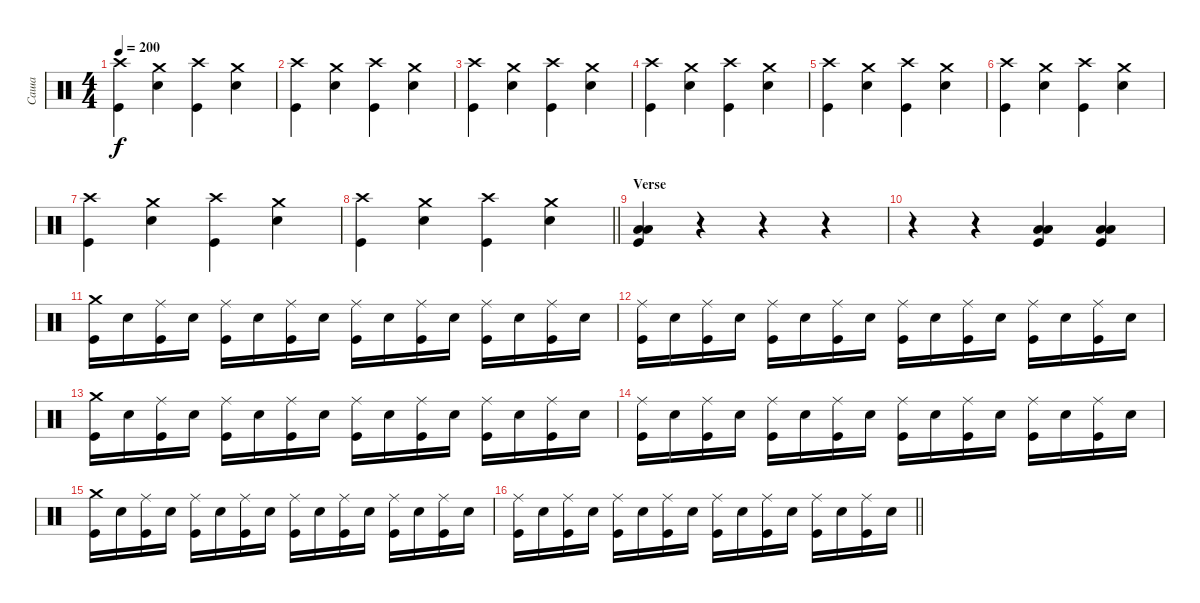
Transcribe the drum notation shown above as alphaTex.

\track ("Саша" "Саша") {instrument percussion}
\staff {score}
\articulation defaults
\ts (4 4)
\tempo 200
\clef neutral
\ks c
("Crash high (hit)" "Kick (hit)").4{dy f} ("Crash medium (hit)" "Electric Snare (hit)").4 ("Crash high (hit)" "Kick (hit)").4 ("Crash medium (hit)" "Electric Snare (hit)").4 |
("Crash high (hit)" "Kick (hit)").4 ("Crash medium (hit)" "Electric Snare (hit)").4 ("Crash high (hit)" "Kick (hit)").4 ("Crash medium (hit)" "Electric Snare (hit)").4 |
("Crash high (hit)" "Kick (hit)").4 ("Crash medium (hit)" "Electric Snare (hit)").4 ("Crash high (hit)" "Kick (hit)").4 ("Crash medium (hit)" "Electric Snare (hit)").4 |
("Crash high (hit)" "Kick (hit)").4 ("Crash medium (hit)" "Electric Snare (hit)").4 ("Crash high (hit)" "Kick (hit)").4 ("Crash medium (hit)" "Electric Snare (hit)").4 |
("Crash high (hit)" "Kick (hit)").4 ("Crash medium (hit)" "Electric Snare (hit)").4 ("Crash high (hit)" "Kick (hit)").4 ("Crash medium (hit)" "Electric Snare (hit)").4 |
("Crash high (hit)" "Kick (hit)").4 ("Crash medium (hit)" "Electric Snare (hit)").4 ("Crash high (hit)" "Kick (hit)").4 ("Crash medium (hit)" "Electric Snare (hit)").4 |
("Crash high (hit)" "Kick (hit)").4 ("Crash medium (hit)" "Electric Snare (hit)").4 ("Crash high (hit)" "Kick (hit)").4 ("Crash medium (hit)" "Electric Snare (hit)").4 |
\barLineRight lightlight
("Crash high (hit)" "Kick (hit)").4 ("Crash medium (hit)" "Electric Snare (hit)").4 ("Crash high (hit)" "Kick (hit)").4 ("Crash medium (hit)" "Electric Snare (hit)").4 |
\section ("" "Verse")
("Low Tom (hit)" "Low Floor Tom (hit)" "Kick (hit)").4 r.4 r.4 r.4 |
r.4 r.4 ("Low Tom (hit)" "Low Floor Tom (hit)" "Kick (hit)").4 ("Low Tom (hit)" "Low Floor Tom (hit)" "Kick (hit)").4 |
("Crash medium (hit)" "Kick (hit)").16 "Electric Snare (hit)".16 ("Ride (middle)" "Kick (hit)").16 "Electric Snare (hit)".16 ("Ride (middle)" "Kick (hit)").16 "Electric Snare (hit)".16 ("Ride (middle)" "Kick (hit)").16 "Electric Snare (hit)".16 ("Ride (middle)" "Kick (hit)").16 "Electric Snare (hit)".16 ("Ride (middle)" "Kick (hit)").16 "Electric Snare (hit)".16 ("Ride (middle)" "Kick (hit)").16 "Electric Snare (hit)".16 ("Ride (middle)" "Kick (hit)").16 "Electric Snare (hit)".16 |
("Ride (middle)" "Kick (hit)").16 "Electric Snare (hit)".16 ("Ride (middle)" "Kick (hit)").16 "Electric Snare (hit)".16 ("Ride (middle)" "Kick (hit)").16 "Electric Snare (hit)".16 ("Ride (middle)" "Kick (hit)").16 "Electric Snare (hit)".16 ("Ride (middle)" "Kick (hit)").16 "Electric Snare (hit)".16 ("Ride (middle)" "Kick (hit)").16 "Electric Snare (hit)".16 ("Ride (middle)" "Kick (hit)").16 "Electric Snare (hit)".16 ("Ride (middle)" "Kick (hit)").16 "Electric Snare (hit)".16 |
("Crash medium (hit)" "Kick (hit)").16 "Electric Snare (hit)".16 ("Ride (middle)" "Kick (hit)").16 "Electric Snare (hit)".16 ("Ride (middle)" "Kick (hit)").16 "Electric Snare (hit)".16 ("Ride (middle)" "Kick (hit)").16 "Electric Snare (hit)".16 ("Ride (middle)" "Kick (hit)").16 "Electric Snare (hit)".16 ("Ride (middle)" "Kick (hit)").16 "Electric Snare (hit)".16 ("Ride (middle)" "Kick (hit)").16 "Electric Snare (hit)".16 ("Ride (middle)" "Kick (hit)").16 "Electric Snare (hit)".16 |
("Ride (middle)" "Kick (hit)").16 "Electric Snare (hit)".16 ("Ride (middle)" "Kick (hit)").16 "Electric Snare (hit)".16 ("Ride (middle)" "Kick (hit)").16 "Electric Snare (hit)".16 ("Ride (middle)" "Kick (hit)").16 "Electric Snare (hit)".16 ("Ride (middle)" "Kick (hit)").16 "Electric Snare (hit)".16 ("Ride (middle)" "Kick (hit)").16 "Electric Snare (hit)".16 ("Ride (middle)" "Kick (hit)").16 "Electric Snare (hit)".16 ("Ride (middle)" "Kick (hit)").16 "Electric Snare (hit)".16 |
("Crash medium (hit)" "Kick (hit)").16 "Electric Snare (hit)".16 ("Ride (middle)" "Kick (hit)").16 "Electric Snare (hit)".16 ("Ride (middle)" "Kick (hit)").16 "Electric Snare (hit)".16 ("Ride (middle)" "Kick (hit)").16 "Electric Snare (hit)".16 ("Ride (middle)" "Kick (hit)").16 "Electric Snare (hit)".16 ("Ride (middle)" "Kick (hit)").16 "Electric Snare (hit)".16 ("Ride (middle)" "Kick (hit)").16 "Electric Snare (hit)".16 ("Ride (middle)" "Kick (hit)").16 "Electric Snare (hit)".16 |
\barLineRight lightlight
("Ride (middle)" "Kick (hit)").16 "Electric Snare (hit)".16 ("Ride (middle)" "Kick (hit)").16 "Electric Snare (hit)".16 ("Ride (middle)" "Kick (hit)").16 "Electric Snare (hit)".16 ("Ride (middle)" "Kick (hit)").16 "Electric Snare (hit)".16 ("Ride (middle)" "Kick (hit)").16 "Electric Snare (hit)".16 ("Ride (middle)" "Kick (hit)").16 "Electric Snare (hit)".16 ("Ride (middle)" "Kick (hit)").16 "Electric Snare (hit)".16 ("Ride (middle)" "Kick (hit)").16 "Electric Snare (hit)".16
